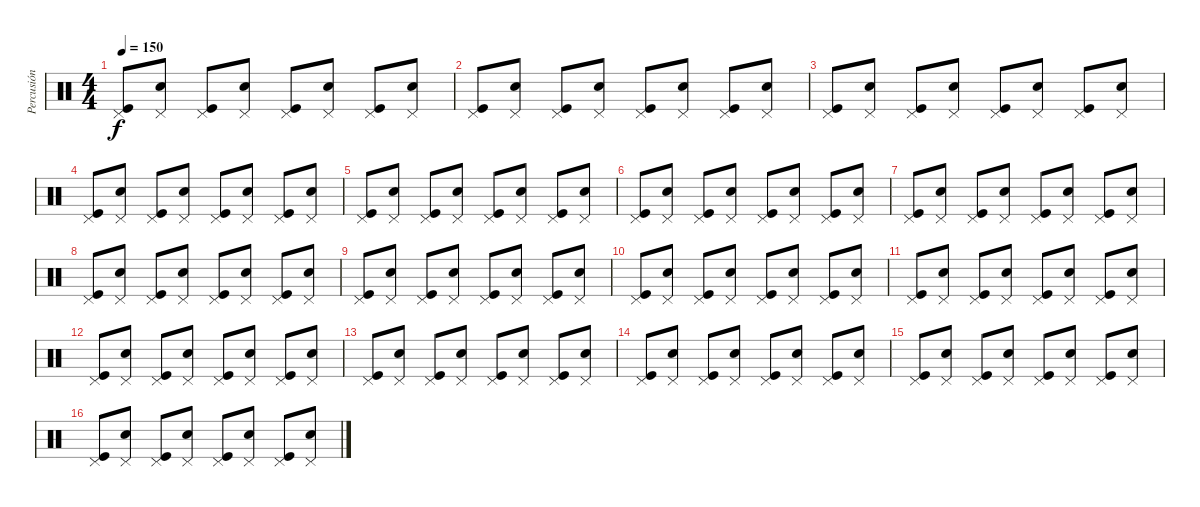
\track ("Percusión" "Percusión") {instrument percussion}
\staff {score}
\articulation defaults
\ts (4 4)
\tempo 150
\clef neutral
\ks c
("Pedal Hi-Hat (hit)" "Kick (hit)").8{dy f} ("Pedal Hi-Hat (hit)" "Snare (hit) 2").8 ("Pedal Hi-Hat (hit)" "Kick (hit)").8 ("Pedal Hi-Hat (hit)" "Snare (hit) 2").8 ("Pedal Hi-Hat (hit)" "Kick (hit)").8 ("Pedal Hi-Hat (hit)" "Snare (hit) 2").8 ("Pedal Hi-Hat (hit)" "Kick (hit)").8 ("Pedal Hi-Hat (hit)" "Snare (hit) 2").8 |
("Pedal Hi-Hat (hit)" "Kick (hit)").8 ("Pedal Hi-Hat (hit)" "Snare (hit) 2").8 ("Pedal Hi-Hat (hit)" "Kick (hit)").8 ("Pedal Hi-Hat (hit)" "Snare (hit) 2").8 ("Pedal Hi-Hat (hit)" "Kick (hit)").8 ("Pedal Hi-Hat (hit)" "Snare (hit) 2").8 ("Pedal Hi-Hat (hit)" "Kick (hit)").8 ("Pedal Hi-Hat (hit)" "Snare (hit) 2").8 |
("Pedal Hi-Hat (hit)" "Kick (hit)").8 ("Pedal Hi-Hat (hit)" "Snare (hit) 2").8 ("Pedal Hi-Hat (hit)" "Kick (hit)").8 ("Pedal Hi-Hat (hit)" "Snare (hit) 2").8 ("Pedal Hi-Hat (hit)" "Kick (hit)").8 ("Pedal Hi-Hat (hit)" "Snare (hit) 2").8 ("Pedal Hi-Hat (hit)" "Kick (hit)").8 ("Pedal Hi-Hat (hit)" "Snare (hit) 2").8 |
("Pedal Hi-Hat (hit)" "Kick (hit)").8 ("Pedal Hi-Hat (hit)" "Snare (hit) 2").8 ("Pedal Hi-Hat (hit)" "Kick (hit)").8 ("Pedal Hi-Hat (hit)" "Snare (hit) 2").8 ("Pedal Hi-Hat (hit)" "Kick (hit)").8 ("Pedal Hi-Hat (hit)" "Snare (hit) 2").8 ("Pedal Hi-Hat (hit)" "Kick (hit)").8 ("Pedal Hi-Hat (hit)" "Snare (hit) 2").8 |
("Pedal Hi-Hat (hit)" "Kick (hit)").8 ("Pedal Hi-Hat (hit)" "Snare (hit) 2").8 ("Pedal Hi-Hat (hit)" "Kick (hit)").8 ("Pedal Hi-Hat (hit)" "Snare (hit) 2").8 ("Pedal Hi-Hat (hit)" "Kick (hit)").8 ("Pedal Hi-Hat (hit)" "Snare (hit) 2").8 ("Pedal Hi-Hat (hit)" "Kick (hit)").8 ("Pedal Hi-Hat (hit)" "Snare (hit) 2").8 |
("Pedal Hi-Hat (hit)" "Kick (hit)").8 ("Pedal Hi-Hat (hit)" "Snare (hit) 2").8 ("Pedal Hi-Hat (hit)" "Kick (hit)").8 ("Pedal Hi-Hat (hit)" "Snare (hit) 2").8 ("Pedal Hi-Hat (hit)" "Kick (hit)").8 ("Pedal Hi-Hat (hit)" "Snare (hit) 2").8 ("Pedal Hi-Hat (hit)" "Kick (hit)").8 ("Pedal Hi-Hat (hit)" "Snare (hit) 2").8 |
("Pedal Hi-Hat (hit)" "Kick (hit)").8 ("Pedal Hi-Hat (hit)" "Snare (hit) 2").8 ("Pedal Hi-Hat (hit)" "Kick (hit)").8 ("Pedal Hi-Hat (hit)" "Snare (hit) 2").8 ("Pedal Hi-Hat (hit)" "Kick (hit)").8 ("Pedal Hi-Hat (hit)" "Snare (hit) 2").8 ("Pedal Hi-Hat (hit)" "Kick (hit)").8 ("Pedal Hi-Hat (hit)" "Snare (hit) 2").8 |
("Pedal Hi-Hat (hit)" "Kick (hit)").8 ("Pedal Hi-Hat (hit)" "Snare (hit) 2").8 ("Pedal Hi-Hat (hit)" "Kick (hit)").8 ("Pedal Hi-Hat (hit)" "Snare (hit) 2").8 ("Pedal Hi-Hat (hit)" "Kick (hit)").8 ("Pedal Hi-Hat (hit)" "Snare (hit) 2").8 ("Pedal Hi-Hat (hit)" "Kick (hit)").8 ("Pedal Hi-Hat (hit)" "Snare (hit) 2").8 |
("Pedal Hi-Hat (hit)" "Kick (hit)").8 ("Pedal Hi-Hat (hit)" "Snare (hit) 2").8 ("Pedal Hi-Hat (hit)" "Kick (hit)").8 ("Pedal Hi-Hat (hit)" "Snare (hit) 2").8 ("Pedal Hi-Hat (hit)" "Kick (hit)").8 ("Pedal Hi-Hat (hit)" "Snare (hit) 2").8 ("Pedal Hi-Hat (hit)" "Kick (hit)").8 ("Pedal Hi-Hat (hit)" "Snare (hit) 2").8 |
("Pedal Hi-Hat (hit)" "Kick (hit)").8 ("Pedal Hi-Hat (hit)" "Snare (hit) 2").8 ("Pedal Hi-Hat (hit)" "Kick (hit)").8 ("Pedal Hi-Hat (hit)" "Snare (hit) 2").8 ("Pedal Hi-Hat (hit)" "Kick (hit)").8 ("Pedal Hi-Hat (hit)" "Snare (hit) 2").8 ("Pedal Hi-Hat (hit)" "Kick (hit)").8 ("Pedal Hi-Hat (hit)" "Snare (hit) 2").8 |
("Pedal Hi-Hat (hit)" "Kick (hit)").8 ("Pedal Hi-Hat (hit)" "Snare (hit) 2").8 ("Pedal Hi-Hat (hit)" "Kick (hit)").8 ("Pedal Hi-Hat (hit)" "Snare (hit) 2").8 ("Pedal Hi-Hat (hit)" "Kick (hit)").8 ("Pedal Hi-Hat (hit)" "Snare (hit) 2").8 ("Pedal Hi-Hat (hit)" "Kick (hit)").8 ("Pedal Hi-Hat (hit)" "Snare (hit) 2").8 |
("Pedal Hi-Hat (hit)" "Kick (hit)").8 ("Pedal Hi-Hat (hit)" "Snare (hit) 2").8 ("Pedal Hi-Hat (hit)" "Kick (hit)").8 ("Pedal Hi-Hat (hit)" "Snare (hit) 2").8 ("Pedal Hi-Hat (hit)" "Kick (hit)").8 ("Pedal Hi-Hat (hit)" "Snare (hit) 2").8 ("Pedal Hi-Hat (hit)" "Kick (hit)").8 ("Pedal Hi-Hat (hit)" "Snare (hit) 2").8 |
("Pedal Hi-Hat (hit)" "Kick (hit)").8 ("Pedal Hi-Hat (hit)" "Snare (hit) 2").8 ("Pedal Hi-Hat (hit)" "Kick (hit)").8 ("Pedal Hi-Hat (hit)" "Snare (hit) 2").8 ("Pedal Hi-Hat (hit)" "Kick (hit)").8 ("Pedal Hi-Hat (hit)" "Snare (hit) 2").8 ("Pedal Hi-Hat (hit)" "Kick (hit)").8 ("Pedal Hi-Hat (hit)" "Snare (hit) 2").8 |
("Pedal Hi-Hat (hit)" "Kick (hit)").8 ("Pedal Hi-Hat (hit)" "Snare (hit) 2").8 ("Pedal Hi-Hat (hit)" "Kick (hit)").8 ("Pedal Hi-Hat (hit)" "Snare (hit) 2").8 ("Pedal Hi-Hat (hit)" "Kick (hit)").8 ("Pedal Hi-Hat (hit)" "Snare (hit) 2").8 ("Pedal Hi-Hat (hit)" "Kick (hit)").8 ("Pedal Hi-Hat (hit)" "Snare (hit) 2").8 |
("Pedal Hi-Hat (hit)" "Kick (hit)").8 ("Pedal Hi-Hat (hit)" "Snare (hit) 2").8 ("Pedal Hi-Hat (hit)" "Kick (hit)").8 ("Pedal Hi-Hat (hit)" "Snare (hit) 2").8 ("Pedal Hi-Hat (hit)" "Kick (hit)").8 ("Pedal Hi-Hat (hit)" "Snare (hit) 2").8 ("Pedal Hi-Hat (hit)" "Kick (hit)").8 ("Pedal Hi-Hat (hit)" "Snare (hit) 2").8 |
("Pedal Hi-Hat (hit)" "Kick (hit)").8 ("Pedal Hi-Hat (hit)" "Snare (hit) 2").8 ("Pedal Hi-Hat (hit)" "Kick (hit)").8 ("Pedal Hi-Hat (hit)" "Snare (hit) 2").8 ("Pedal Hi-Hat (hit)" "Kick (hit)").8 ("Pedal Hi-Hat (hit)" "Snare (hit) 2").8 ("Pedal Hi-Hat (hit)" "Kick (hit)").8 ("Pedal Hi-Hat (hit)" "Snare (hit) 2").8
